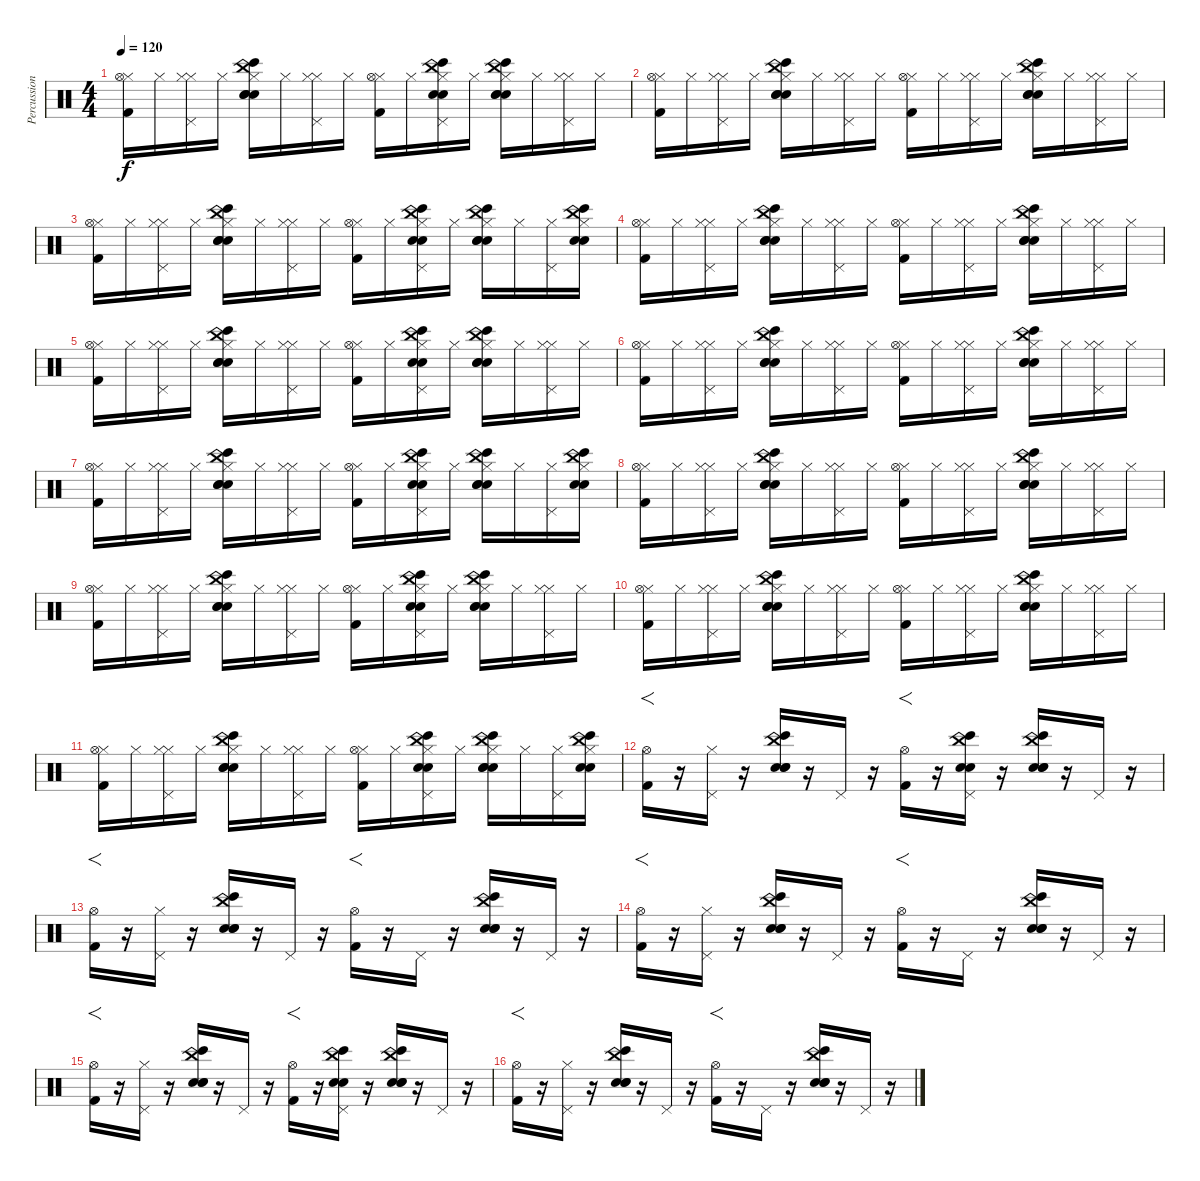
\track ("Percussion" "Percussion") {instrument percussion}
\staff {score}
\articulation defaults
\ts (4 4)
\tempo 120
\clef neutral
\ks c
("Hi-Hat (closed)" "Kick (hit) 2" "Hi-Hat (open)").16{dy f} "Hi-Hat (closed)".16 ("Hi-Hat (closed)" "Pedal Hi-Hat (hit)" "Hi-Hat (closed)").16 "Hi-Hat (closed)".16 ("Hi-Hat (closed)" "Snare (hit) 2" "China (hit)" "Bongo High (hit)" "Hand Clap (hit)" "Hand Clap (hit)").16 "Hi-Hat (closed)".16 ("Hi-Hat (closed)" "Pedal Hi-Hat (hit)" "Hi-Hat (closed)").16 "Hi-Hat (closed)".16 ("Hi-Hat (closed)" "Kick (hit) 2" "Hi-Hat (open)").16 "Hi-Hat (closed)".16 ("Hi-Hat (closed)" "Pedal Hi-Hat (hit)" "China (hit)" "Bongo High (hit)" "Hand Clap (hit)" "Hand Clap (hit)").16 "Hi-Hat (closed)".16 ("Hi-Hat (closed)" "Snare (hit) 2" "China (hit)" "Bongo High (hit)" "Hand Clap (hit)" "Hand Clap (hit)").16 "Hi-Hat (closed)".16 ("Hi-Hat (closed)" "Pedal Hi-Hat (hit)" "Hi-Hat (closed)").16 "Hi-Hat (closed)".16 |
("Hi-Hat (closed)" "Kick (hit) 2" "Hi-Hat (open)").16 "Hi-Hat (closed)".16 ("Hi-Hat (closed)" "Pedal Hi-Hat (hit)" "Hi-Hat (closed)").16 "Hi-Hat (closed)".16 ("Hi-Hat (closed)" "Snare (hit) 2" "China (hit)" "Bongo High (hit)" "Hand Clap (hit)" "Hand Clap (hit)").16 "Hi-Hat (closed)".16 ("Hi-Hat (closed)" "Pedal Hi-Hat (hit)" "Hi-Hat (closed)").16 "Hi-Hat (closed)".16 ("Hi-Hat (closed)" "Kick (hit) 2" "Hi-Hat (open)").16 "Hi-Hat (closed)".16 ("Hi-Hat (closed)" "Pedal Hi-Hat (hit)" "Hi-Hat (closed)").16 "Hi-Hat (closed)".16 ("Hi-Hat (closed)" "Snare (hit) 2" "China (hit)" "Bongo High (hit)" "Hand Clap (hit)" "Hand Clap (hit)").16 "Hi-Hat (closed)".16 ("Hi-Hat (closed)" "Pedal Hi-Hat (hit)" "Hi-Hat (closed)").16 "Hi-Hat (closed)".16 |
("Hi-Hat (closed)" "Kick (hit) 2" "Hi-Hat (open)").16 "Hi-Hat (closed)".16 ("Hi-Hat (closed)" "Pedal Hi-Hat (hit)" "Hi-Hat (closed)").16 "Hi-Hat (closed)".16 ("Hi-Hat (closed)" "Snare (hit) 2" "China (hit)" "Bongo High (hit)" "Hand Clap (hit)" "Hand Clap (hit)").16 "Hi-Hat (closed)".16 ("Hi-Hat (closed)" "Pedal Hi-Hat (hit)" "Hi-Hat (closed)").16 "Hi-Hat (closed)".16 ("Hi-Hat (closed)" "Kick (hit) 2" "Hi-Hat (open)").16 "Hi-Hat (closed)".16 ("Hi-Hat (closed)" "Pedal Hi-Hat (hit)" "China (hit)" "Bongo High (hit)" "Hand Clap (hit)" "Hand Clap (hit)").16 "Hi-Hat (closed)".16 ("Hi-Hat (closed)" "Snare (hit) 2" "China (hit)" "Bongo High (hit)" "Hand Clap (hit)" "Hand Clap (hit)").16 "Hi-Hat (closed)".16 ("Hi-Hat (closed)" "Pedal Hi-Hat (hit)").16 ("Hi-Hat (closed)" "China (hit)" "Bongo High (hit)" "Hand Clap (hit)" "Hand Clap (hit)").16 |
("Hi-Hat (closed)" "Kick (hit) 2" "Hi-Hat (open)").16 "Hi-Hat (closed)".16 ("Hi-Hat (closed)" "Pedal Hi-Hat (hit)" "Hi-Hat (closed)").16 "Hi-Hat (closed)".16 ("Hi-Hat (closed)" "Snare (hit) 2" "China (hit)" "Bongo High (hit)" "Hand Clap (hit)" "Hand Clap (hit)").16 "Hi-Hat (closed)".16 ("Hi-Hat (closed)" "Pedal Hi-Hat (hit)" "Hi-Hat (closed)").16 "Hi-Hat (closed)".16 ("Hi-Hat (closed)" "Kick (hit) 2" "Hi-Hat (open)").16 "Hi-Hat (closed)".16 ("Hi-Hat (closed)" "Pedal Hi-Hat (hit)" "Hi-Hat (closed)").16 "Hi-Hat (closed)".16 ("Hi-Hat (closed)" "Snare (hit) 2" "China (hit)" "Bongo High (hit)" "Hand Clap (hit)" "Hand Clap (hit)").16 "Hi-Hat (closed)".16 ("Hi-Hat (closed)" "Pedal Hi-Hat (hit)" "Hi-Hat (closed)").16 "Hi-Hat (closed)".16 |
("Hi-Hat (closed)" "Kick (hit) 2" "Hi-Hat (open)").16 "Hi-Hat (closed)".16 ("Hi-Hat (closed)" "Pedal Hi-Hat (hit)" "Hi-Hat (closed)").16 "Hi-Hat (closed)".16 ("Hi-Hat (closed)" "Snare (hit) 2" "China (hit)" "Bongo High (hit)" "Hand Clap (hit)" "Hand Clap (hit)").16 "Hi-Hat (closed)".16 ("Hi-Hat (closed)" "Pedal Hi-Hat (hit)" "Hi-Hat (closed)").16 "Hi-Hat (closed)".16 ("Hi-Hat (closed)" "Kick (hit) 2" "Hi-Hat (open)").16 "Hi-Hat (closed)".16 ("Hi-Hat (closed)" "Pedal Hi-Hat (hit)" "China (hit)" "Bongo High (hit)" "Hand Clap (hit)" "Hand Clap (hit)").16 "Hi-Hat (closed)".16 ("Hi-Hat (closed)" "Snare (hit) 2" "China (hit)" "Bongo High (hit)" "Hand Clap (hit)" "Hand Clap (hit)").16 "Hi-Hat (closed)".16 ("Hi-Hat (closed)" "Pedal Hi-Hat (hit)" "Hi-Hat (closed)").16 "Hi-Hat (closed)".16 |
("Hi-Hat (closed)" "Kick (hit) 2" "Hi-Hat (open)").16 "Hi-Hat (closed)".16 ("Hi-Hat (closed)" "Pedal Hi-Hat (hit)" "Hi-Hat (closed)").16 "Hi-Hat (closed)".16 ("Hi-Hat (closed)" "Snare (hit) 2" "China (hit)" "Bongo High (hit)" "Hand Clap (hit)" "Hand Clap (hit)").16 "Hi-Hat (closed)".16 ("Hi-Hat (closed)" "Pedal Hi-Hat (hit)" "Hi-Hat (closed)").16 "Hi-Hat (closed)".16 ("Hi-Hat (closed)" "Kick (hit) 2" "Hi-Hat (open)").16 "Hi-Hat (closed)".16 ("Hi-Hat (closed)" "Pedal Hi-Hat (hit)" "Hi-Hat (closed)").16 "Hi-Hat (closed)".16 ("Hi-Hat (closed)" "Snare (hit) 2" "China (hit)" "Bongo High (hit)" "Hand Clap (hit)" "Hand Clap (hit)").16 "Hi-Hat (closed)".16 ("Hi-Hat (closed)" "Pedal Hi-Hat (hit)" "Hi-Hat (closed)").16 "Hi-Hat (closed)".16 |
("Hi-Hat (closed)" "Kick (hit) 2" "Hi-Hat (open)").16 "Hi-Hat (closed)".16 ("Hi-Hat (closed)" "Pedal Hi-Hat (hit)" "Hi-Hat (closed)").16 "Hi-Hat (closed)".16 ("Hi-Hat (closed)" "Snare (hit) 2" "China (hit)" "Bongo High (hit)" "Hand Clap (hit)" "Hand Clap (hit)").16 "Hi-Hat (closed)".16 ("Hi-Hat (closed)" "Pedal Hi-Hat (hit)" "Hi-Hat (closed)").16 "Hi-Hat (closed)".16 ("Hi-Hat (closed)" "Kick (hit) 2" "Hi-Hat (open)").16 "Hi-Hat (closed)".16 ("Hi-Hat (closed)" "Pedal Hi-Hat (hit)" "China (hit)" "Bongo High (hit)" "Hand Clap (hit)" "Hand Clap (hit)").16 "Hi-Hat (closed)".16 ("Hi-Hat (closed)" "Snare (hit) 2" "China (hit)" "Bongo High (hit)" "Hand Clap (hit)" "Hand Clap (hit)").16 "Hi-Hat (closed)".16 ("Hi-Hat (closed)" "Pedal Hi-Hat (hit)").16 ("Hi-Hat (closed)" "China (hit)" "Bongo High (hit)" "Hand Clap (hit)" "Hand Clap (hit)").16 |
("Hi-Hat (closed)" "Kick (hit) 2" "Hi-Hat (open)").16 "Hi-Hat (closed)".16 ("Hi-Hat (closed)" "Pedal Hi-Hat (hit)" "Hi-Hat (closed)").16 "Hi-Hat (closed)".16 ("Hi-Hat (closed)" "Snare (hit) 2" "China (hit)" "Bongo High (hit)" "Hand Clap (hit)" "Hand Clap (hit)").16 "Hi-Hat (closed)".16 ("Hi-Hat (closed)" "Pedal Hi-Hat (hit)" "Hi-Hat (closed)").16 "Hi-Hat (closed)".16 ("Hi-Hat (closed)" "Kick (hit) 2" "Hi-Hat (open)").16 "Hi-Hat (closed)".16 ("Hi-Hat (closed)" "Pedal Hi-Hat (hit)" "Hi-Hat (closed)").16 "Hi-Hat (closed)".16 ("Hi-Hat (closed)" "Snare (hit) 2" "China (hit)" "Bongo High (hit)" "Hand Clap (hit)" "Hand Clap (hit)").16 "Hi-Hat (closed)".16 ("Hi-Hat (closed)" "Pedal Hi-Hat (hit)" "Hi-Hat (closed)").16 "Hi-Hat (closed)".16 |
("Hi-Hat (closed)" "Kick (hit) 2" "Hi-Hat (open)").16 "Hi-Hat (closed)".16 ("Hi-Hat (closed)" "Pedal Hi-Hat (hit)" "Hi-Hat (closed)").16 "Hi-Hat (closed)".16 ("Hi-Hat (closed)" "Snare (hit) 2" "China (hit)" "Bongo High (hit)" "Hand Clap (hit)" "Hand Clap (hit)").16 "Hi-Hat (closed)".16 ("Hi-Hat (closed)" "Pedal Hi-Hat (hit)" "Hi-Hat (closed)").16 "Hi-Hat (closed)".16 ("Hi-Hat (closed)" "Kick (hit) 2" "Hi-Hat (open)").16 "Hi-Hat (closed)".16 ("Hi-Hat (closed)" "Pedal Hi-Hat (hit)" "China (hit)" "Bongo High (hit)" "Hand Clap (hit)" "Hand Clap (hit)").16 "Hi-Hat (closed)".16 ("Hi-Hat (closed)" "Snare (hit) 2" "China (hit)" "Bongo High (hit)" "Hand Clap (hit)" "Hand Clap (hit)").16 "Hi-Hat (closed)".16 ("Hi-Hat (closed)" "Pedal Hi-Hat (hit)" "Hi-Hat (closed)").16 "Hi-Hat (closed)".16 |
("Hi-Hat (closed)" "Kick (hit) 2" "Hi-Hat (open)").16 "Hi-Hat (closed)".16 ("Hi-Hat (closed)" "Pedal Hi-Hat (hit)" "Hi-Hat (closed)").16 "Hi-Hat (closed)".16 ("Hi-Hat (closed)" "Snare (hit) 2" "China (hit)" "Bongo High (hit)" "Hand Clap (hit)" "Hand Clap (hit)").16 "Hi-Hat (closed)".16 ("Hi-Hat (closed)" "Pedal Hi-Hat (hit)" "Hi-Hat (closed)").16 "Hi-Hat (closed)".16 ("Hi-Hat (closed)" "Kick (hit) 2" "Hi-Hat (open)").16 "Hi-Hat (closed)".16 ("Hi-Hat (closed)" "Pedal Hi-Hat (hit)" "Hi-Hat (closed)").16 "Hi-Hat (closed)".16 ("Hi-Hat (closed)" "Snare (hit) 2" "China (hit)" "Bongo High (hit)" "Hand Clap (hit)" "Hand Clap (hit)").16 "Hi-Hat (closed)".16 ("Hi-Hat (closed)" "Pedal Hi-Hat (hit)" "Hi-Hat (closed)").16 "Hi-Hat (closed)".16 |
("Hi-Hat (closed)" "Kick (hit) 2" "Hi-Hat (open)").16 "Hi-Hat (closed)".16 ("Hi-Hat (closed)" "Pedal Hi-Hat (hit)" "Hi-Hat (closed)").16 "Hi-Hat (closed)".16 ("Hi-Hat (closed)" "Snare (hit) 2" "China (hit)" "Bongo High (hit)" "Hand Clap (hit)" "Hand Clap (hit)").16 "Hi-Hat (closed)".16 ("Hi-Hat (closed)" "Pedal Hi-Hat (hit)" "Hi-Hat (closed)").16 "Hi-Hat (closed)".16 ("Hi-Hat (closed)" "Kick (hit) 2" "Hi-Hat (open)").16 "Hi-Hat (closed)".16 ("Hi-Hat (closed)" "Pedal Hi-Hat (hit)" "China (hit)" "Bongo High (hit)" "Hand Clap (hit)" "Hand Clap (hit)").16 "Hi-Hat (closed)".16 ("Hi-Hat (closed)" "Snare (hit) 2" "China (hit)" "Bongo High (hit)" "Hand Clap (hit)" "Hand Clap (hit)").16 "Hi-Hat (closed)".16 ("Hi-Hat (closed)" "Pedal Hi-Hat (hit)").16 ("Hi-Hat (closed)" "China (hit)" "Bongo High (hit)" "Hand Clap (hit)" "Hand Clap (hit)").16 |
("Kick (hit) 2" "Hi-Hat (open)").16{f} r.16 ("Pedal Hi-Hat (hit)" "Hi-Hat (closed)").16 r.16 ("Snare (hit) 2" "China (hit)" "Bongo High (hit)" "Hand Clap (hit)" "Hand Clap (hit)").16 r.16 "Pedal Hi-Hat (hit)".16 r.16 ("Kick (hit) 2" "Hi-Hat (open)").16{f} r.16 ("Pedal Hi-Hat (hit)" "China (hit)" "Bongo High (hit)" "Hand Clap (hit)" "Hand Clap (hit)").16 r.16 ("Snare (hit) 2" "China (hit)" "Bongo High (hit)" "Hand Clap (hit)" "Hand Clap (hit)").16 r.16 "Pedal Hi-Hat (hit)".16 r.16 |
("Kick (hit) 2" "Hi-Hat (open)").16{f} r.16 ("Pedal Hi-Hat (hit)" "Hi-Hat (closed)").16 r.16 ("Snare (hit) 2" "China (hit)" "Bongo High (hit)" "Hand Clap (hit)" "Hand Clap (hit)").16 r.16 "Pedal Hi-Hat (hit)".16 r.16 ("Kick (hit) 2" "Hi-Hat (open)").16{f} r.16 "Pedal Hi-Hat (hit)".16 r.16 ("Snare (hit) 2" "China (hit)" "Bongo High (hit)" "Hand Clap (hit)" "Hand Clap (hit)").16 r.16 "Pedal Hi-Hat (hit)".16 r.16 |
("Kick (hit) 2" "Hi-Hat (open)").16{f} r.16 ("Pedal Hi-Hat (hit)" "Hi-Hat (closed)").16 r.16 ("Snare (hit) 2" "China (hit)" "Bongo High (hit)" "Hand Clap (hit)" "Hand Clap (hit)").16 r.16 "Pedal Hi-Hat (hit)".16 r.16 ("Kick (hit) 2" "Hi-Hat (open)").16{f} r.16 "Pedal Hi-Hat (hit)".16 r.16 ("Snare (hit) 2" "China (hit)" "Bongo High (hit)" "Hand Clap (hit)" "Hand Clap (hit)").16 r.16 "Pedal Hi-Hat (hit)".16 r.16 |
("Kick (hit) 2" "Hi-Hat (open)").16{f} r.16 ("Pedal Hi-Hat (hit)" "Hi-Hat (closed)").16 r.16 ("Snare (hit) 2" "China (hit)" "Bongo High (hit)" "Hand Clap (hit)" "Hand Clap (hit)").16 r.16 "Pedal Hi-Hat (hit)".16 r.16 ("Kick (hit) 2" "Hi-Hat (open)").16{f} r.16 ("Pedal Hi-Hat (hit)" "China (hit)" "Bongo High (hit)" "Hand Clap (hit)" "Hand Clap (hit)").16 r.16 ("Snare (hit) 2" "China (hit)" "Bongo High (hit)" "Hand Clap (hit)" "Hand Clap (hit)").16 r.16 "Pedal Hi-Hat (hit)".16 r.16 |
("Kick (hit) 2" "Hi-Hat (open)").16{f} r.16 ("Pedal Hi-Hat (hit)" "Hi-Hat (closed)").16 r.16 ("Snare (hit) 2" "China (hit)" "Bongo High (hit)" "Hand Clap (hit)" "Hand Clap (hit)").16 r.16 "Pedal Hi-Hat (hit)".16 r.16 ("Kick (hit) 2" "Hi-Hat (open)").16{f} r.16 "Pedal Hi-Hat (hit)".16 r.16 ("Snare (hit) 2" "China (hit)" "Bongo High (hit)" "Hand Clap (hit)" "Hand Clap (hit)").16 r.16 "Pedal Hi-Hat (hit)".16 r.16
